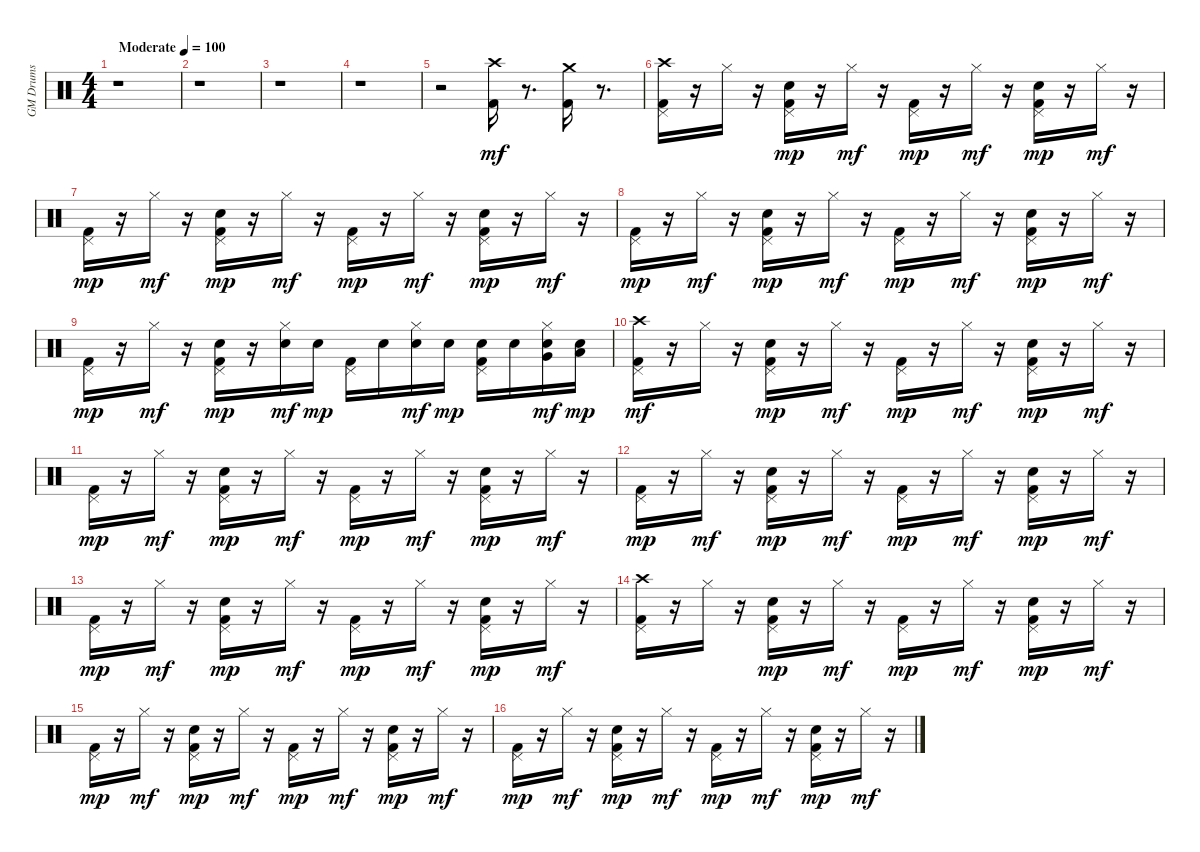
\track ("GM Drums" "GM Drums") {instrument percussion}
\staff {score}
\articulation defaults
\ts (4 4)
\tempo (100 "Moderate")
\clef neutral
\ks c
r.1{dy mf} |
r.1 |
r.1 |
r.1 |
r.2 ("Kick (hit) 2" "Crash high (hit)").16 r.8{d} ("Kick (hit) 2" "Crash medium (hit)").16 r.8{d} |
("Kick (hit) 2" "Pedal Hi-Hat (hit)" "Crash high (hit)").16 r.16 "Hi-Hat (closed)".16 r.16 ("Kick (hit) 2" "Snare (hit) 2" "Pedal Hi-Hat (hit)").16{dy mp} r.16 "Hi-Hat (closed)".16{dy mf} r.16 ("Kick (hit) 2" "Pedal Hi-Hat (hit)").16{dy mp} r.16 "Hi-Hat (closed)".16{dy mf} r.16 ("Kick (hit) 2" "Snare (hit) 2" "Pedal Hi-Hat (hit)").16{dy mp} r.16 "Hi-Hat (closed)".16{dy mf} r.16 |
("Kick (hit) 2" "Pedal Hi-Hat (hit)").16{dy mp} r.16 "Hi-Hat (closed)".16{dy mf} r.16 ("Kick (hit) 2" "Snare (hit) 2" "Pedal Hi-Hat (hit)").16{dy mp} r.16 "Hi-Hat (closed)".16{dy mf} r.16 ("Kick (hit) 2" "Pedal Hi-Hat (hit)").16{dy mp} r.16 "Hi-Hat (closed)".16{dy mf} r.16 ("Kick (hit) 2" "Snare (hit) 2" "Pedal Hi-Hat (hit)").16{dy mp} r.16 "Hi-Hat (closed)".16{dy mf} r.16 |
("Kick (hit) 2" "Pedal Hi-Hat (hit)").16{dy mp} r.16 "Hi-Hat (closed)".16{dy mf} r.16 ("Kick (hit) 2" "Snare (hit) 2" "Pedal Hi-Hat (hit)").16{dy mp} r.16 "Hi-Hat (closed)".16{dy mf} r.16 ("Kick (hit) 2" "Pedal Hi-Hat (hit)").16{dy mp} r.16 "Hi-Hat (closed)".16{dy mf} r.16 ("Kick (hit) 2" "Snare (hit) 2" "Pedal Hi-Hat (hit)").16{dy mp} r.16 "Hi-Hat (closed)".16{dy mf} r.16 |
("Kick (hit) 2" "Pedal Hi-Hat (hit)").16{dy mp} r.16 "Hi-Hat (closed)".16{dy mf} r.16 ("Kick (hit) 2" "Snare (hit) 2" "Pedal Hi-Hat (hit)").16{dy mp} r.16 ("Snare (hit) 2" "Hi-Hat (closed)").16{dy mf} "Electric Snare (hit)".16{dy mp} ("Kick (hit) 2" "Pedal Hi-Hat (hit)").16 "Electric Snare (hit)".16 ("Snare (hit) 2" "Hi-Hat (closed)").16{dy mf} "Electric Snare (hit)".16{dy mp} ("Kick (hit) 2" "Snare (hit) 2" "Pedal Hi-Hat (hit)").16 "Snare (hit) 2".16 ("Electric Snare (hit)" "Hi-Hat (closed)" "Very Low Tom (hit)").16{dy mf} ("Electric Snare (hit)" "Low Floor Tom (hit)").16{dy mp} |
("Kick (hit) 2" "Pedal Hi-Hat (hit)" "Crash high (hit)").16{dy mf} r.16 "Hi-Hat (closed)".16 r.16 ("Kick (hit) 2" "Snare (hit) 2" "Pedal Hi-Hat (hit)").16{dy mp} r.16 "Hi-Hat (closed)".16{dy mf} r.16 ("Kick (hit) 2" "Pedal Hi-Hat (hit)").16{dy mp} r.16 "Hi-Hat (closed)".16{dy mf} r.16 ("Kick (hit) 2" "Snare (hit) 2" "Pedal Hi-Hat (hit)").16{dy mp} r.16 "Hi-Hat (closed)".16{dy mf} r.16 |
("Kick (hit) 2" "Pedal Hi-Hat (hit)").16{dy mp} r.16 "Hi-Hat (closed)".16{dy mf} r.16 ("Kick (hit) 2" "Snare (hit) 2" "Pedal Hi-Hat (hit)").16{dy mp} r.16 "Hi-Hat (closed)".16{dy mf} r.16 ("Kick (hit) 2" "Pedal Hi-Hat (hit)").16{dy mp} r.16 "Hi-Hat (closed)".16{dy mf} r.16 ("Kick (hit) 2" "Snare (hit) 2" "Pedal Hi-Hat (hit)").16{dy mp} r.16 "Hi-Hat (closed)".16{dy mf} r.16 |
("Kick (hit) 2" "Pedal Hi-Hat (hit)").16{dy mp} r.16 "Hi-Hat (closed)".16{dy mf} r.16 ("Kick (hit) 2" "Snare (hit) 2" "Pedal Hi-Hat (hit)").16{dy mp} r.16 "Hi-Hat (closed)".16{dy mf} r.16 ("Kick (hit) 2" "Pedal Hi-Hat (hit)").16{dy mp} r.16 "Hi-Hat (closed)".16{dy mf} r.16 ("Kick (hit) 2" "Snare (hit) 2" "Pedal Hi-Hat (hit)").16{dy mp} r.16 "Hi-Hat (closed)".16{dy mf} r.16 |
("Kick (hit) 2" "Pedal Hi-Hat (hit)").16{dy mp} r.16 "Hi-Hat (closed)".16{dy mf} r.16 ("Kick (hit) 2" "Snare (hit) 2" "Pedal Hi-Hat (hit)").16{dy mp} r.16 "Hi-Hat (closed)".16{dy mf} r.16 ("Kick (hit) 2" "Pedal Hi-Hat (hit)").16{dy mp} r.16 "Hi-Hat (closed)".16{dy mf} r.16 ("Kick (hit) 2" "Snare (hit) 2" "Pedal Hi-Hat (hit)").16{dy mp} r.16 "Hi-Hat (closed)".16{dy mf} r.16 |
("Kick (hit) 2" "Pedal Hi-Hat (hit)" "Crash high (hit)").16 r.16 "Hi-Hat (closed)".16 r.16 ("Kick (hit) 2" "Snare (hit) 2" "Pedal Hi-Hat (hit)").16{dy mp} r.16 "Hi-Hat (closed)".16{dy mf} r.16 ("Kick (hit) 2" "Pedal Hi-Hat (hit)").16{dy mp} r.16 "Hi-Hat (closed)".16{dy mf} r.16 ("Kick (hit) 2" "Snare (hit) 2" "Pedal Hi-Hat (hit)").16{dy mp} r.16 "Hi-Hat (closed)".16{dy mf} r.16 |
("Kick (hit) 2" "Pedal Hi-Hat (hit)").16{dy mp} r.16 "Hi-Hat (closed)".16{dy mf} r.16 ("Kick (hit) 2" "Snare (hit) 2" "Pedal Hi-Hat (hit)").16{dy mp} r.16 "Hi-Hat (closed)".16{dy mf} r.16 ("Kick (hit) 2" "Pedal Hi-Hat (hit)").16{dy mp} r.16 "Hi-Hat (closed)".16{dy mf} r.16 ("Kick (hit) 2" "Snare (hit) 2" "Pedal Hi-Hat (hit)").16{dy mp} r.16 "Hi-Hat (closed)".16{dy mf} r.16 |
("Kick (hit) 2" "Pedal Hi-Hat (hit)").16{dy mp} r.16 "Hi-Hat (closed)".16{dy mf} r.16 ("Kick (hit) 2" "Snare (hit) 2" "Pedal Hi-Hat (hit)").16{dy mp} r.16 "Hi-Hat (closed)".16{dy mf} r.16 ("Kick (hit) 2" "Pedal Hi-Hat (hit)").16{dy mp} r.16 "Hi-Hat (closed)".16{dy mf} r.16 ("Kick (hit) 2" "Snare (hit) 2" "Pedal Hi-Hat (hit)").16{dy mp} r.16 "Hi-Hat (closed)".16{dy mf} r.16
